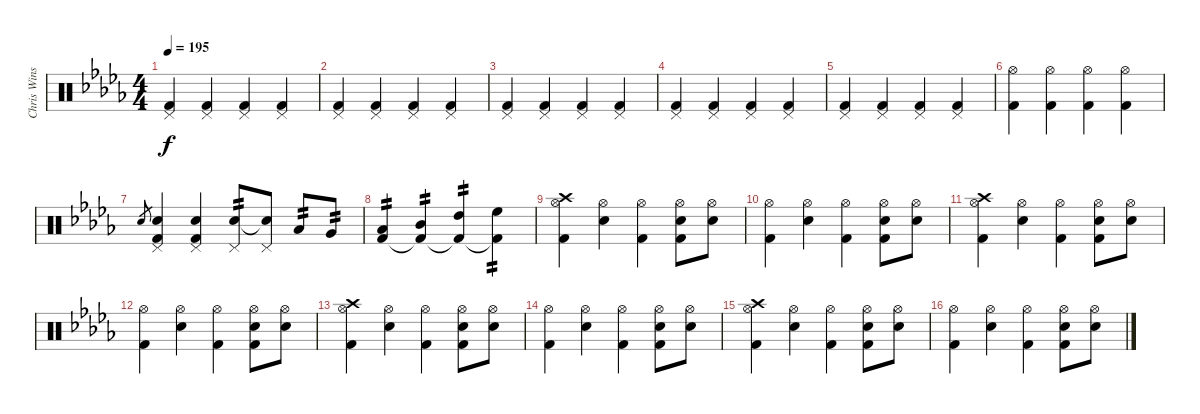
\track ("Chris Winship (Drums)" "Chris Wins") {instrument percussion}
\staff {score}
\articulation defaults
\ts (4 4)
\tempo 195
\clef neutral
\ks bbminor
("Kick (hit) 2" "Pedal Hi-Hat (hit)").4{dy f} ("Kick (hit) 2" "Pedal Hi-Hat (hit)").4 ("Kick (hit) 2" "Pedal Hi-Hat (hit)").4 ("Kick (hit) 2" "Pedal Hi-Hat (hit)").4 |
("Kick (hit) 2" "Pedal Hi-Hat (hit)").4 ("Kick (hit) 2" "Pedal Hi-Hat (hit)").4 ("Kick (hit) 2" "Pedal Hi-Hat (hit)").4 ("Kick (hit) 2" "Pedal Hi-Hat (hit)").4 |
("Kick (hit) 2" "Pedal Hi-Hat (hit)").4 ("Kick (hit) 2" "Pedal Hi-Hat (hit)").4 ("Kick (hit) 2" "Pedal Hi-Hat (hit)").4 ("Kick (hit) 2" "Pedal Hi-Hat (hit)").4 |
("Kick (hit) 2" "Pedal Hi-Hat (hit)").4 ("Kick (hit) 2" "Pedal Hi-Hat (hit)").4 ("Kick (hit) 2" "Pedal Hi-Hat (hit)").4 ("Kick (hit) 2" "Pedal Hi-Hat (hit)").4 |
("Kick (hit) 2" "Pedal Hi-Hat (hit)").4 ("Kick (hit) 2" "Pedal Hi-Hat (hit)").4 ("Kick (hit) 2" "Pedal Hi-Hat (hit)").4 ("Kick (hit) 2" "Pedal Hi-Hat (hit)").4 |
("Kick (hit) 2" "Hi-Hat (open)").4 ("Kick (hit) 2" "Hi-Hat (open)").4 ("Kick (hit) 2" "Hi-Hat (open)").4 ("Kick (hit) 2" "Hi-Hat (open)").4 |
"Electric Snare (hit)".8{gr} ("Snare (hit) 2" "Kick (hit) 2" "Pedal Hi-Hat (hit)").4 ("Electric Snare (hit)" "Kick (hit) 2" "Pedal Hi-Hat (hit)").4 ("Electric Snare (hit)" "Pedal Hi-Hat (hit)").8{tp 2} ("Snare (hit)"{t} "Pedal Hi-Hat (hit)").8 "Low Floor Tom (hit)".8{tp 2} "Very Low Tom (hit)".8{tp 2} |
("Kick (hit) 2" "Low Tom (hit)").4{tp 2} ("Kick (hit) 2"{t} "Mid Tom (hit)").4{tp 2} ("Kick (hit) 2"{t} "High Tom (hit)").4{tp 2} ("Kick (hit) 2"{t} "High Floor Tom (hit)").4{tp 2} |
("Crash high (hit)" "Hi-Hat (open)" "Kick (hit) 2").4 ("Hi-Hat (open)" "Electric Snare (hit)").4 ("Hi-Hat (open)" "Kick (hit) 2").4 ("Hi-Hat (open)" "Electric Snare (hit)" "Kick (hit) 2").8 ("Hi-Hat (open)" "Electric Snare (hit)").8 |
("Hi-Hat (open)" "Kick (hit) 2").4 ("Hi-Hat (open)" "Electric Snare (hit)").4 ("Hi-Hat (open)" "Kick (hit) 2").4 ("Hi-Hat (open)" "Electric Snare (hit)" "Kick (hit) 2").8 ("Hi-Hat (open)" "Electric Snare (hit)").8 |
("Crash high (hit)" "Hi-Hat (open)" "Kick (hit) 2").4 ("Hi-Hat (open)" "Electric Snare (hit)").4 ("Hi-Hat (open)" "Kick (hit) 2").4 ("Hi-Hat (open)" "Electric Snare (hit)" "Kick (hit) 2").8 ("Hi-Hat (open)" "Electric Snare (hit)").8 |
("Hi-Hat (open)" "Kick (hit) 2").4 ("Hi-Hat (open)" "Electric Snare (hit)").4 ("Hi-Hat (open)" "Kick (hit) 2").4 ("Hi-Hat (open)" "Electric Snare (hit)" "Kick (hit) 2").8 ("Hi-Hat (open)" "Electric Snare (hit)").8 |
("Crash high (hit)" "Hi-Hat (open)" "Kick (hit) 2").4 ("Hi-Hat (open)" "Electric Snare (hit)").4 ("Hi-Hat (open)" "Kick (hit) 2").4 ("Hi-Hat (open)" "Electric Snare (hit)" "Kick (hit) 2").8 ("Hi-Hat (open)" "Electric Snare (hit)").8 |
("Hi-Hat (open)" "Kick (hit) 2").4 ("Hi-Hat (open)" "Electric Snare (hit)").4 ("Hi-Hat (open)" "Kick (hit) 2").4 ("Hi-Hat (open)" "Electric Snare (hit)" "Kick (hit) 2").8 ("Hi-Hat (open)" "Electric Snare (hit)").8 |
("Crash high (hit)" "Hi-Hat (open)" "Kick (hit) 2").4 ("Hi-Hat (open)" "Electric Snare (hit)").4 ("Hi-Hat (open)" "Kick (hit) 2").4 ("Hi-Hat (open)" "Electric Snare (hit)" "Kick (hit) 2").8 ("Hi-Hat (open)" "Electric Snare (hit)").8 |
("Hi-Hat (open)" "Kick (hit) 2").4 ("Hi-Hat (open)" "Electric Snare (hit)").4 ("Hi-Hat (open)" "Kick (hit) 2").4 ("Hi-Hat (open)" "Electric Snare (hit)" "Kick (hit) 2").8 ("Hi-Hat (open)" "Electric Snare (hit)").8
